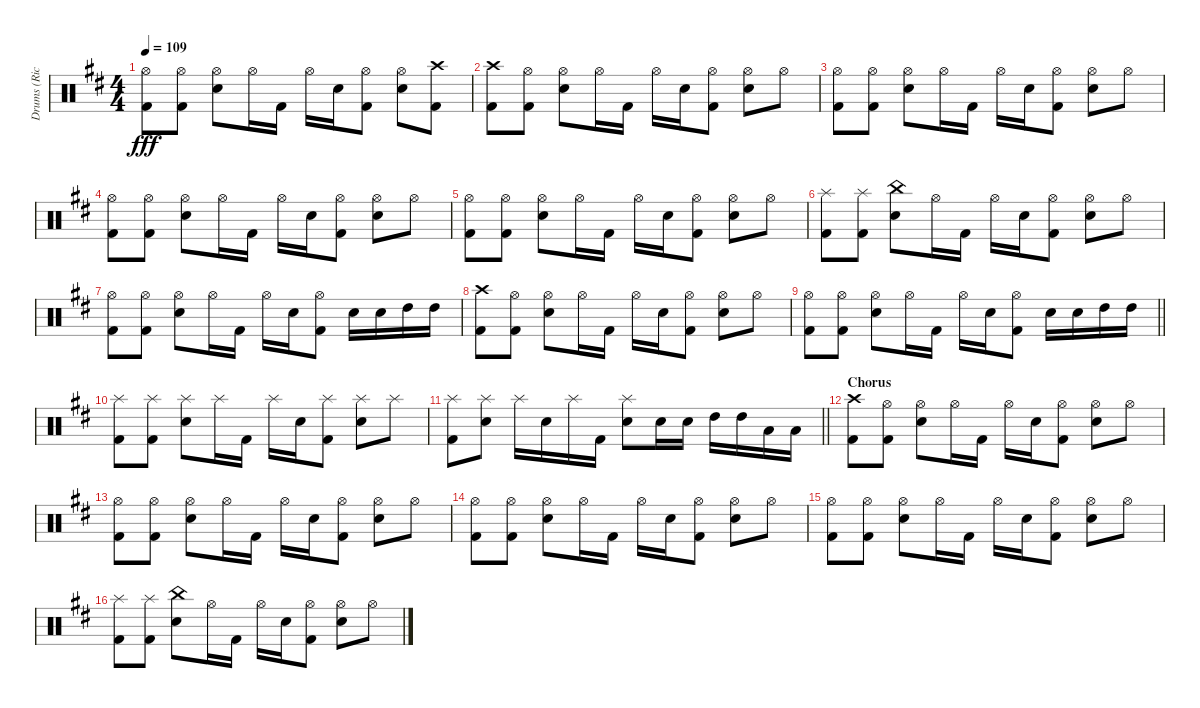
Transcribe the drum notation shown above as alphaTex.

\track ("Drums (Rick McMurray)" "Drums (Ric") {instrument percussion}
\staff {score}
\articulation defaults
\ts (4 4)
\tempo 109
\clef neutral
\ks d
("Hi-Hat (open)" "Kick (hit) 2").8{dy fff} ("Hi-Hat (open)" "Kick (hit) 2").8 ("Hi-Hat (open)" "Snare (hit) 2").8 "Hi-Hat (open)".16 "Kick (hit) 2".16 "Hi-Hat (open)".16 "Snare (hit) 2".16 ("Hi-Hat (open)" "Kick (hit) 2").8 ("Hi-Hat (open)" "Snare (hit) 2").8 ("Crash high (hit)" "Kick (hit) 2").8 |
("Crash high (hit)" "Kick (hit) 2").8 ("Hi-Hat (open)" "Kick (hit) 2").8 ("Hi-Hat (open)" "Snare (hit) 2").8 "Hi-Hat (open)".16 "Kick (hit) 2".16 "Hi-Hat (open)".16 "Snare (hit) 2".16 ("Hi-Hat (open)" "Kick (hit) 2").8 ("Hi-Hat (open)" "Snare (hit) 2").8 "Hi-Hat (open)".8 |
("Hi-Hat (open)" "Kick (hit) 2").8 ("Hi-Hat (open)" "Kick (hit) 2").8 ("Hi-Hat (open)" "Snare (hit) 2").8 "Hi-Hat (open)".16 "Kick (hit) 2".16 "Hi-Hat (open)".16 "Snare (hit) 2".16 ("Hi-Hat (open)" "Kick (hit) 2").8 ("Hi-Hat (open)" "Snare (hit) 2").8 "Hi-Hat (open)".8 |
("Hi-Hat (open)" "Kick (hit) 2").8 ("Hi-Hat (open)" "Kick (hit) 2").8 ("Hi-Hat (open)" "Snare (hit) 2").8 "Hi-Hat (open)".16 "Kick (hit) 2".16 "Hi-Hat (open)".16 "Snare (hit) 2".16 ("Hi-Hat (open)" "Kick (hit) 2").8 ("Hi-Hat (open)" "Snare (hit) 2").8 "Hi-Hat (open)".8 |
("Hi-Hat (open)" "Kick (hit) 2").8 ("Hi-Hat (open)" "Kick (hit) 2").8 ("Hi-Hat (open)" "Snare (hit) 2").8 "Hi-Hat (open)".16 "Kick (hit) 2".16 "Hi-Hat (open)".16 "Snare (hit) 2".16 ("Hi-Hat (open)" "Kick (hit) 2").8 ("Hi-Hat (open)" "Snare (hit) 2").8 "Hi-Hat (open)".8 |
("Splash (hit)" "Kick (hit) 2").8 ("Splash (hit)" "Kick (hit) 2").8 ("China (hit)" "Snare (hit) 2").8 "Hi-Hat (open)".16 "Kick (hit) 2".16 "Hi-Hat (open)".16 "Snare (hit) 2".16 ("Hi-Hat (open)" "Kick (hit) 2").8 ("Hi-Hat (open)" "Snare (hit) 2").8 "Hi-Hat (open)".8 |
("Hi-Hat (open)" "Kick (hit) 2").8 ("Hi-Hat (open)" "Kick (hit) 2").8 ("Hi-Hat (open)" "Snare (hit) 2").8 "Hi-Hat (open)".16 "Kick (hit) 2".16 "Hi-Hat (open)".16 "Snare (hit) 2".16 ("Hi-Hat (open)" "Kick (hit) 2").8 "Snare (hit) 2".16 "Snare (hit) 2".16 "High Tom (hit)".16 "High Tom (hit)".16 |
("Crash high (hit)" "Kick (hit) 2").8 ("Hi-Hat (open)" "Kick (hit) 2").8 ("Hi-Hat (open)" "Snare (hit) 2").8 "Hi-Hat (open)".16 "Kick (hit) 2".16 "Hi-Hat (open)".16 "Snare (hit) 2".16 ("Hi-Hat (open)" "Kick (hit) 2").8 ("Hi-Hat (open)" "Snare (hit) 2").8 "Hi-Hat (open)".8 |
\barLineRight lightlight
("Hi-Hat (open)" "Kick (hit) 2").8 ("Hi-Hat (open)" "Kick (hit) 2").8 ("Hi-Hat (open)" "Snare (hit) 2").8 "Hi-Hat (open)".16 "Kick (hit) 2".16 "Hi-Hat (open)".16 "Snare (hit) 2".16 ("Hi-Hat (open)" "Kick (hit) 2").8 "Snare (hit) 2".16 "Snare (hit) 2".16 "High Tom (hit)".16 "High Tom (hit)".16 |
("Splash (hit)" "Kick (hit) 2").8 ("Splash (hit)" "Kick (hit) 2").8 ("Splash (hit)" "Snare (hit) 2").8 "Splash (hit)".16 "Kick (hit) 2".16 "Splash (hit)".16 "Snare (hit) 2".16 ("Splash (hit)" "Kick (hit) 2").8 ("Splash (hit)" "Snare (hit) 2").8 "Splash (hit)".8 |
\barLineRight lightlight
("Splash (hit)" "Kick (hit) 2").8 ("Splash (hit)" "Snare (hit) 2").8 "Splash (hit)".16 "Snare (hit) 2".16 "Splash (hit)".16 "Kick (hit) 2".16 ("Splash (hit)" "Snare (hit) 2").8 "Snare (hit) 2".16 "Snare (hit) 2".16 "High Tom (hit)".16 "High Tom (hit)".16 "Low Tom (hit)".16 "Low Tom (hit)".16 |
\section ("" "Chorus")
("Crash high (hit)" "Kick (hit) 2").8 ("Hi-Hat (open)" "Kick (hit) 2").8 ("Hi-Hat (open)" "Snare (hit) 2").8 "Hi-Hat (open)".16 "Kick (hit) 2".16 "Hi-Hat (open)".16 "Snare (hit) 2".16 ("Hi-Hat (open)" "Kick (hit) 2").8 ("Hi-Hat (open)" "Snare (hit) 2").8 "Hi-Hat (open)".8 |
("Hi-Hat (open)" "Kick (hit) 2").8 ("Hi-Hat (open)" "Kick (hit) 2").8 ("Hi-Hat (open)" "Snare (hit) 2").8 "Hi-Hat (open)".16 "Kick (hit) 2".16 "Hi-Hat (open)".16 "Snare (hit) 2".16 ("Hi-Hat (open)" "Kick (hit) 2").8 ("Hi-Hat (open)" "Snare (hit) 2").8 "Hi-Hat (open)".8 |
("Hi-Hat (open)" "Kick (hit) 2").8 ("Hi-Hat (open)" "Kick (hit) 2").8 ("Hi-Hat (open)" "Snare (hit) 2").8 "Hi-Hat (open)".16 "Kick (hit) 2".16 "Hi-Hat (open)".16 "Snare (hit) 2".16 ("Hi-Hat (open)" "Kick (hit) 2").8 ("Hi-Hat (open)" "Snare (hit) 2").8 "Hi-Hat (open)".8 |
("Hi-Hat (open)" "Kick (hit) 2").8 ("Hi-Hat (open)" "Kick (hit) 2").8 ("Hi-Hat (open)" "Snare (hit) 2").8 "Hi-Hat (open)".16 "Kick (hit) 2".16 "Hi-Hat (open)".16 "Snare (hit) 2".16 ("Hi-Hat (open)" "Kick (hit) 2").8 ("Hi-Hat (open)" "Snare (hit) 2").8 "Hi-Hat (open)".8 |
("Splash (hit)" "Kick (hit) 2").8 ("Splash (hit)" "Kick (hit) 2").8 ("China (hit)" "Snare (hit) 2").8 "Hi-Hat (open)".16 "Kick (hit) 2".16 "Hi-Hat (open)".16 "Snare (hit) 2".16 ("Hi-Hat (open)" "Kick (hit) 2").8 ("Hi-Hat (open)" "Snare (hit) 2").8 "Hi-Hat (open)".8
